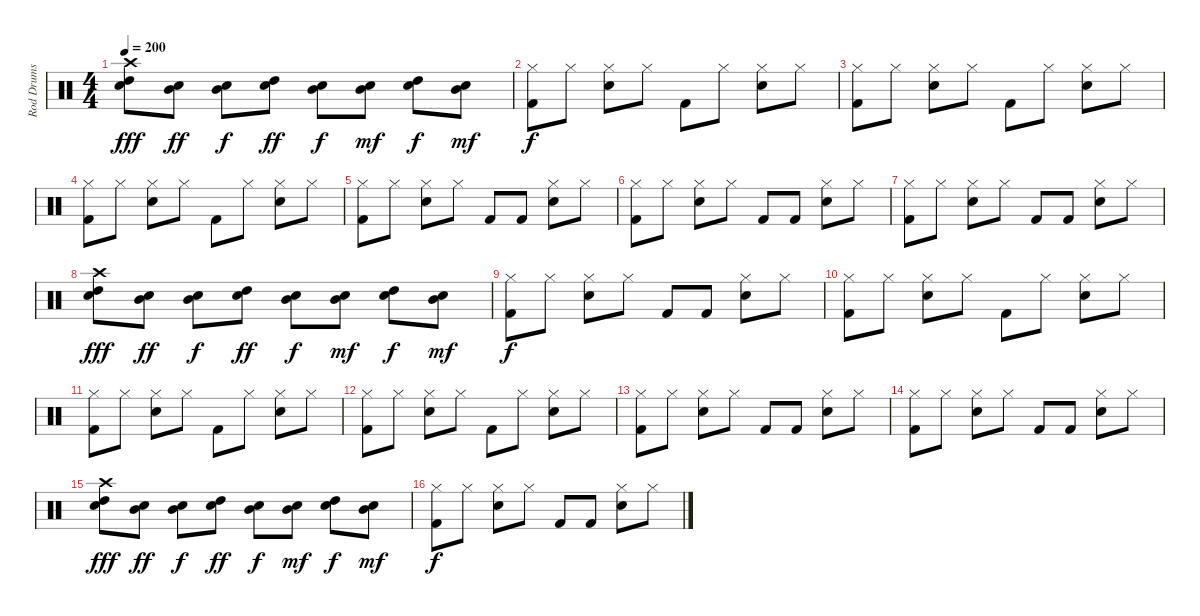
\track ("Rod Drums" "Rod Drums") {instrument percussion}
\staff {score}
\articulation defaults
\ts (4 4)
\tempo 200
\clef neutral
\ks c
("Snare (hit) 2" "High Tom (hit)" "Crash high (hit)").8{dy fff} ("Snare (hit) 2" "Mid Tom (hit)").8{dy ff} ("Snare (hit) 2" "Mid Tom (hit)").8{dy f} ("Snare (hit) 2" "High Tom (hit)").8{dy ff} ("Snare (hit) 2" "Mid Tom (hit)").8{dy f} ("Snare (hit) 2" "Mid Tom (hit)").8{dy mf} ("Snare (hit) 2" "High Tom (hit)").8{dy f} ("Snare (hit) 2" "Mid Tom (hit)").8{dy mf} |
("Kick (hit) 2" "Hi-Hat (closed)").8{dy f} "Hi-Hat (closed)".8 ("Snare (hit) 2" "Hi-Hat (closed)").8 "Hi-Hat (closed)".8 "Kick (hit) 2".8 "Hi-Hat (closed)".8 ("Snare (hit) 2" "Hi-Hat (closed)").8 "Hi-Hat (closed)".8 |
("Kick (hit) 2" "Hi-Hat (closed)").8 "Hi-Hat (closed)".8 ("Snare (hit) 2" "Hi-Hat (closed)").8 "Hi-Hat (closed)".8 "Kick (hit) 2".8 "Hi-Hat (closed)".8 ("Snare (hit) 2" "Hi-Hat (closed)").8 "Hi-Hat (closed)".8 |
("Kick (hit) 2" "Hi-Hat (closed)").8 "Hi-Hat (closed)".8 ("Snare (hit) 2" "Hi-Hat (closed)").8 "Hi-Hat (closed)".8 "Kick (hit) 2".8 "Hi-Hat (closed)".8 ("Snare (hit) 2" "Hi-Hat (closed)").8 "Hi-Hat (closed)".8 |
("Kick (hit) 2" "Hi-Hat (closed)").8 "Hi-Hat (closed)".8 ("Snare (hit) 2" "Hi-Hat (closed)").8 "Hi-Hat (closed)".8 "Kick (hit) 2".8 "Kick (hit) 2".8 ("Snare (hit) 2" "Hi-Hat (closed)").8 "Hi-Hat (closed)".8 |
("Kick (hit) 2" "Hi-Hat (closed)").8 "Hi-Hat (closed)".8 ("Snare (hit) 2" "Hi-Hat (closed)").8 "Hi-Hat (closed)".8 "Kick (hit) 2".8 "Kick (hit) 2".8 ("Snare (hit) 2" "Hi-Hat (closed)").8 "Hi-Hat (closed)".8 |
("Kick (hit) 2" "Hi-Hat (closed)").8 "Hi-Hat (closed)".8 ("Snare (hit) 2" "Hi-Hat (closed)").8 "Hi-Hat (closed)".8 "Kick (hit) 2".8 "Kick (hit) 2".8 ("Snare (hit) 2" "Hi-Hat (closed)").8 "Hi-Hat (closed)".8 |
("Snare (hit) 2" "High Tom (hit)" "Crash high (hit)").8{dy fff} ("Snare (hit) 2" "Mid Tom (hit)").8{dy ff} ("Snare (hit) 2" "Mid Tom (hit)").8{dy f} ("Snare (hit) 2" "High Tom (hit)").8{dy ff} ("Snare (hit) 2" "Mid Tom (hit)").8{dy f} ("Snare (hit) 2" "Mid Tom (hit)").8{dy mf} ("Snare (hit) 2" "High Tom (hit)").8{dy f} ("Snare (hit) 2" "Mid Tom (hit)").8{dy mf} |
("Kick (hit) 2" "Hi-Hat (closed)").8{dy f} "Hi-Hat (closed)".8 ("Snare (hit) 2" "Hi-Hat (closed)").8 "Hi-Hat (closed)".8 "Kick (hit) 2".8 "Kick (hit) 2".8 ("Snare (hit) 2" "Hi-Hat (closed)").8 "Hi-Hat (closed)".8 |
("Kick (hit) 2" "Hi-Hat (closed)").8 "Hi-Hat (closed)".8 ("Snare (hit) 2" "Hi-Hat (closed)").8 "Hi-Hat (closed)".8 "Kick (hit) 2".8 "Hi-Hat (closed)".8 ("Snare (hit) 2" "Hi-Hat (closed)").8 "Hi-Hat (closed)".8 |
("Kick (hit) 2" "Hi-Hat (closed)").8 "Hi-Hat (closed)".8 ("Snare (hit) 2" "Hi-Hat (closed)").8 "Hi-Hat (closed)".8 "Kick (hit) 2".8 "Hi-Hat (closed)".8 ("Snare (hit) 2" "Hi-Hat (closed)").8 "Hi-Hat (closed)".8 |
("Kick (hit) 2" "Hi-Hat (closed)").8 "Hi-Hat (closed)".8 ("Snare (hit) 2" "Hi-Hat (closed)").8 "Hi-Hat (closed)".8 "Kick (hit) 2".8 "Hi-Hat (closed)".8 ("Snare (hit) 2" "Hi-Hat (closed)").8 "Hi-Hat (closed)".8 |
("Kick (hit) 2" "Hi-Hat (closed)").8 "Hi-Hat (closed)".8 ("Snare (hit) 2" "Hi-Hat (closed)").8 "Hi-Hat (closed)".8 "Kick (hit) 2".8 "Kick (hit) 2".8 ("Snare (hit) 2" "Hi-Hat (closed)").8 "Hi-Hat (closed)".8 |
("Kick (hit) 2" "Hi-Hat (closed)").8 "Hi-Hat (closed)".8 ("Snare (hit) 2" "Hi-Hat (closed)").8 "Hi-Hat (closed)".8 "Kick (hit) 2".8 "Kick (hit) 2".8 ("Snare (hit) 2" "Hi-Hat (closed)").8 "Hi-Hat (closed)".8 |
("Snare (hit) 2" "High Tom (hit)" "Crash high (hit)").8{dy fff} ("Snare (hit) 2" "Mid Tom (hit)").8{dy ff} ("Snare (hit) 2" "Mid Tom (hit)").8{dy f} ("Snare (hit) 2" "High Tom (hit)").8{dy ff} ("Snare (hit) 2" "Mid Tom (hit)").8{dy f} ("Snare (hit) 2" "Mid Tom (hit)").8{dy mf} ("Snare (hit) 2" "High Tom (hit)").8{dy f} ("Snare (hit) 2" "Mid Tom (hit)").8{dy mf} |
("Kick (hit) 2" "Hi-Hat (closed)").8{dy f} "Hi-Hat (closed)".8 ("Snare (hit) 2" "Hi-Hat (closed)").8 "Hi-Hat (closed)".8 "Kick (hit) 2".8 "Kick (hit) 2".8 ("Snare (hit) 2" "Hi-Hat (closed)").8 "Hi-Hat (closed)".8
